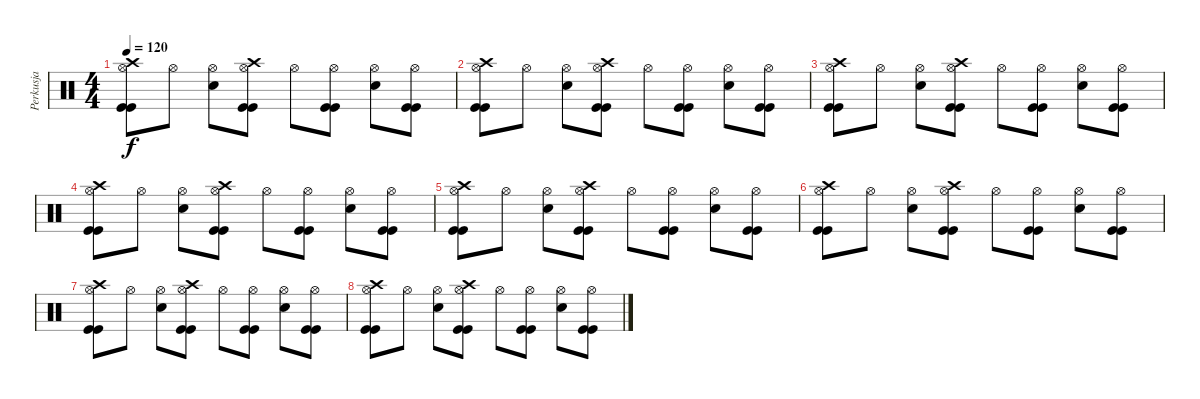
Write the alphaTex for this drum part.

\track ("Perkusja" "Perkusja") {instrument percussion}
\staff
\articulation defaults
\ts (4 4)
\tempo 120
\clef neutral
\ks c
("Hi-Hat (open)" "Crash high (hit)" "Kick (hit)" "Kick (hit)").8{dy f} "Hi-Hat (open)".8 ("Hi-Hat (open)" "Snare (hit) 2").8 ("Hi-Hat (open)" "Crash high (hit)" "Kick (hit)" "Kick (hit)").8 "Hi-Hat (open)".8 ("Hi-Hat (open)" "Kick (hit)" "Kick (hit)").8 ("Hi-Hat (open)" "Snare (hit) 2").8 ("Hi-Hat (open)" "Kick (hit)" "Kick (hit)").8 |
("Hi-Hat (open)" "Crash high (hit)" "Kick (hit)" "Kick (hit)").8 "Hi-Hat (open)".8 ("Hi-Hat (open)" "Snare (hit) 2").8 ("Hi-Hat (open)" "Crash high (hit)" "Kick (hit)" "Kick (hit)").8 "Hi-Hat (open)".8 ("Hi-Hat (open)" "Kick (hit)" "Kick (hit)").8 ("Hi-Hat (open)" "Snare (hit) 2").8 ("Hi-Hat (open)" "Kick (hit)" "Kick (hit)").8 |
("Hi-Hat (open)" "Crash high (hit)" "Kick (hit)" "Kick (hit)").8 "Hi-Hat (open)".8 ("Hi-Hat (open)" "Snare (hit) 2").8 ("Hi-Hat (open)" "Crash high (hit)" "Kick (hit)" "Kick (hit)").8 "Hi-Hat (open)".8 ("Hi-Hat (open)" "Kick (hit)" "Kick (hit)").8 ("Hi-Hat (open)" "Snare (hit) 2").8 ("Hi-Hat (open)" "Kick (hit)" "Kick (hit)").8 |
("Hi-Hat (open)" "Crash high (hit)" "Kick (hit)" "Kick (hit)").8 "Hi-Hat (open)".8 ("Hi-Hat (open)" "Snare (hit) 2").8 ("Hi-Hat (open)" "Crash high (hit)" "Kick (hit)" "Kick (hit)").8 "Hi-Hat (open)".8 ("Hi-Hat (open)" "Kick (hit)" "Kick (hit)").8 ("Hi-Hat (open)" "Snare (hit) 2").8 ("Hi-Hat (open)" "Kick (hit)" "Kick (hit)").8 |
("Hi-Hat (open)" "Crash high (hit)" "Kick (hit)" "Kick (hit)").8 "Hi-Hat (open)".8 ("Hi-Hat (open)" "Snare (hit) 2").8 ("Hi-Hat (open)" "Crash high (hit)" "Kick (hit)" "Kick (hit)").8 "Hi-Hat (open)".8 ("Hi-Hat (open)" "Kick (hit)" "Kick (hit)").8 ("Hi-Hat (open)" "Snare (hit) 2").8 ("Hi-Hat (open)" "Kick (hit)" "Kick (hit)").8 |
("Hi-Hat (open)" "Crash high (hit)" "Kick (hit)" "Kick (hit)").8 "Hi-Hat (open)".8 ("Hi-Hat (open)" "Snare (hit) 2").8 ("Hi-Hat (open)" "Crash high (hit)" "Kick (hit)" "Kick (hit)").8 "Hi-Hat (open)".8 ("Hi-Hat (open)" "Kick (hit)" "Kick (hit)").8 ("Hi-Hat (open)" "Snare (hit) 2").8 ("Hi-Hat (open)" "Kick (hit)" "Kick (hit)").8 |
("Hi-Hat (open)" "Crash high (hit)" "Kick (hit)" "Kick (hit)").8 "Hi-Hat (open)".8 ("Hi-Hat (open)" "Snare (hit) 2").8 ("Hi-Hat (open)" "Crash high (hit)" "Kick (hit)" "Kick (hit)").8 "Hi-Hat (open)".8 ("Hi-Hat (open)" "Kick (hit)" "Kick (hit)").8 ("Hi-Hat (open)" "Snare (hit) 2").8 ("Hi-Hat (open)" "Kick (hit)" "Kick (hit)").8 |
("Hi-Hat (open)" "Crash high (hit)" "Kick (hit)" "Kick (hit)").8 "Hi-Hat (open)".8 ("Hi-Hat (open)" "Snare (hit) 2").8 ("Hi-Hat (open)" "Crash high (hit)" "Kick (hit)" "Kick (hit)").8 "Hi-Hat (open)".8 ("Hi-Hat (open)" "Kick (hit)" "Kick (hit)").8 ("Hi-Hat (open)" "Snare (hit) 2").8 ("Hi-Hat (open)" "Kick (hit)" "Kick (hit)").8
